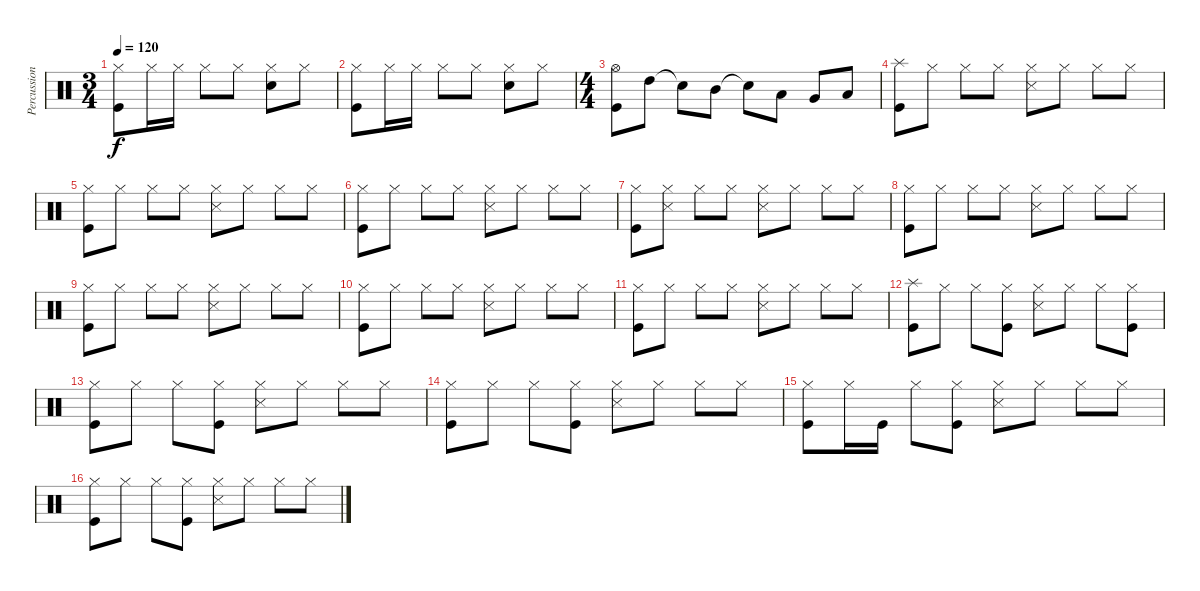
\track ("Percussion" "Percussion") {instrument percussion}
\staff {score}
\articulation defaults
\ts (3 4)
\tempo 120
\clef neutral
\ks c
("Hi-Hat (closed)" "Kick (hit)").8{dy f} "Hi-Hat (closed)".16 "Hi-Hat (closed)".16 "Hi-Hat (closed)".8 "Hi-Hat (closed)".8 ("Hi-Hat (closed)" "Electric Snare (hit)").8 "Hi-Hat (closed)".8 |
("Hi-Hat (closed)" "Kick (hit)").8 "Hi-Hat (closed)".16 "Hi-Hat (closed)".16 "Hi-Hat (closed)".8 "Hi-Hat (closed)".8 ("Hi-Hat (closed)" "Electric Snare (hit)").8 "Hi-Hat (closed)".8 |
\ts (4 4)
("Hi-Hat (open)" "Kick (hit)").8 "High Tom (hit)".8 "Snare (hit)"{t}.8 "Mid Tom (hit)".8 "Snare (hit)"{t}.8 "Low Tom (hit)".8 "Very Low Tom (hit)".8 "Low Floor Tom (hit)".8 |
("Splash (hit)" "Kick (hit)").8 "Hi-Hat (closed)".8 "Hi-Hat (closed)".8 "Hi-Hat (closed)".8 ("Hi-Hat (closed)" "Snare (side stick) 3").8 "Hi-Hat (closed)".8 "Hi-Hat (closed)".8 "Hi-Hat (closed)".8 |
("Hi-Hat (closed)" "Kick (hit)").8 "Hi-Hat (closed)".8 "Hi-Hat (closed)".8 "Hi-Hat (closed)".8 ("Hi-Hat (closed)" "Snare (side stick) 3").8 "Hi-Hat (closed)".8 "Hi-Hat (closed)".8 "Hi-Hat (closed)".8 |
("Hi-Hat (closed)" "Kick (hit)").8 "Hi-Hat (closed)".8 "Hi-Hat (closed)".8 "Hi-Hat (closed)".8 ("Hi-Hat (closed)" "Snare (side stick) 3").8 "Hi-Hat (closed)".8 "Hi-Hat (closed)".8 "Hi-Hat (closed)".8 |
("Hi-Hat (closed)" "Kick (hit)").8 ("Hi-Hat (closed)" "Snare (side stick) 3").8 "Hi-Hat (closed)".8 "Hi-Hat (closed)".8 ("Hi-Hat (closed)" "Snare (side stick) 3").8 "Hi-Hat (closed)".8 "Hi-Hat (closed)".8 "Hi-Hat (closed)".8 |
("Hi-Hat (closed)" "Kick (hit)").8 "Hi-Hat (closed)".8 "Hi-Hat (closed)".8 "Hi-Hat (closed)".8 ("Hi-Hat (closed)" "Snare (side stick) 3").8 "Hi-Hat (closed)".8 "Hi-Hat (closed)".8 "Hi-Hat (closed)".8 |
("Hi-Hat (closed)" "Kick (hit)").8 "Hi-Hat (closed)".8 "Hi-Hat (closed)".8 "Hi-Hat (closed)".8 ("Hi-Hat (closed)" "Snare (side stick) 3").8 "Hi-Hat (closed)".8 "Hi-Hat (closed)".8 "Hi-Hat (closed)".8 |
("Hi-Hat (closed)" "Kick (hit)").8 "Hi-Hat (closed)".8 "Hi-Hat (closed)".8 "Hi-Hat (closed)".8 ("Hi-Hat (closed)" "Snare (side stick) 3").8 "Hi-Hat (closed)".8 "Hi-Hat (closed)".8 "Hi-Hat (closed)".8 |
("Hi-Hat (closed)" "Kick (hit)").8 "Hi-Hat (closed)".8 "Hi-Hat (closed)".8 "Hi-Hat (closed)".8 ("Hi-Hat (closed)" "Snare (side stick) 3").8 "Hi-Hat (closed)".8 "Hi-Hat (closed)".8 "Hi-Hat (closed)".8 |
("Splash (hit)" "Kick (hit)").8 "Hi-Hat (closed)".8 "Hi-Hat (closed)".8 ("Hi-Hat (closed)" "Kick (hit)").8 ("Hi-Hat (closed)" "Snare (side stick) 3").8 "Hi-Hat (closed)".8 "Hi-Hat (closed)".8 ("Hi-Hat (closed)" "Kick (hit)").8 |
("Hi-Hat (closed)" "Kick (hit)").8 "Hi-Hat (closed)".8 "Hi-Hat (closed)".8 ("Hi-Hat (closed)" "Kick (hit)").8 ("Hi-Hat (closed)" "Snare (side stick) 3").8 "Hi-Hat (closed)".8 "Hi-Hat (closed)".8 "Hi-Hat (closed)".8 |
("Hi-Hat (closed)" "Kick (hit)").8 "Hi-Hat (closed)".8 "Hi-Hat (closed)".8 ("Hi-Hat (closed)" "Kick (hit)").8 ("Hi-Hat (closed)" "Snare (side stick) 3").8 "Hi-Hat (closed)".8 "Hi-Hat (closed)".8 "Hi-Hat (closed)".8 |
("Hi-Hat (closed)" "Kick (hit)").8 "Hi-Hat (closed)".16 "Kick (hit)".16 "Hi-Hat (closed)".8 ("Hi-Hat (closed)" "Kick (hit)").8 ("Hi-Hat (closed)" "Snare (side stick) 3").8 "Hi-Hat (closed)".8 "Hi-Hat (closed)".8 "Hi-Hat (closed)".8 |
("Hi-Hat (closed)" "Kick (hit)").8 "Hi-Hat (closed)".8 "Hi-Hat (closed)".8 ("Hi-Hat (closed)" "Kick (hit)").8 ("Hi-Hat (closed)" "Snare (side stick) 3").8 "Hi-Hat (closed)".8 "Hi-Hat (closed)".8 "Hi-Hat (closed)".8
